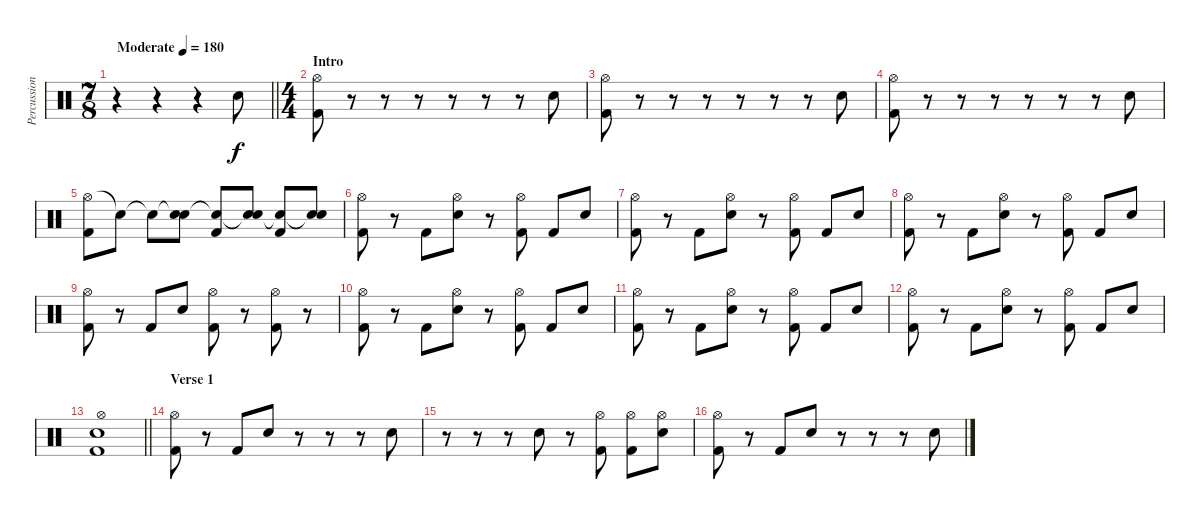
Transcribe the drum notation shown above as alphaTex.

\track ("Percussion" "Percussion") {instrument percussion}
\staff {score}
\articulation defaults
\ts (7 8)
\tempo (180 "Moderate")
\clef neutral
\barLineRight lightlight
\ks c
r.4{dy f} r.4 r.4 "Electric Snare (hit)".8 |
\ts (4 4)
\section ("" "Intro")
("Hi-Hat (open)" "Kick (hit) 2").8 r.8 r.8 r.8 r.8 r.8 r.8 "Electric Snare (hit)".8 |
("Hi-Hat (open)" "Kick (hit) 2").8 r.8 r.8 r.8 r.8 r.8 r.8 "Electric Snare (hit)".8 |
("Hi-Hat (open)" "Kick (hit) 2").8 r.8 r.8 r.8 r.8 r.8 r.8 "Electric Snare (hit)".8 |
("Hi-Hat (open)" "Kick (hit) 2").8 "Snare (hit)"{t}.8 "Snare (hit)"{t}.8 ("Snare (hit)"{t} "Electric Snare (hit)").8 ("Snare (hit)"{t} "Kick (hit) 2").8 ("Snare (hit)"{t} "Electric Snare (hit)").8 ("Snare (hit)"{t} "Kick (hit) 2").8 ("Snare (hit)"{t} "Electric Snare (hit)").8 |
("Hi-Hat (open)" "Kick (hit) 2").8 r.8 "Kick (hit) 2".8 ("Hi-Hat (open)" "Electric Snare (hit)").8 r.8 ("Hi-Hat (open)" "Kick (hit) 2").8 "Kick (hit) 2".8 "Electric Snare (hit)".8 |
("Hi-Hat (open)" "Kick (hit) 2").8 r.8 "Kick (hit) 2".8 ("Hi-Hat (open)" "Electric Snare (hit)").8 r.8 ("Hi-Hat (open)" "Kick (hit) 2").8 "Kick (hit) 2".8 "Electric Snare (hit)".8 |
("Hi-Hat (open)" "Kick (hit) 2").8 r.8 "Kick (hit) 2".8 ("Hi-Hat (open)" "Electric Snare (hit)").8 r.8 ("Hi-Hat (open)" "Kick (hit) 2").8 "Kick (hit) 2".8 "Electric Snare (hit)".8 |
("Hi-Hat (open)" "Kick (hit) 2").8 r.8 "Kick (hit) 2".8 "Electric Snare (hit)".8 ("Hi-Hat (open)" "Kick (hit) 2").8 r.8 ("Hi-Hat (open)" "Kick (hit) 2").8 r.8 |
("Hi-Hat (open)" "Kick (hit) 2").8 r.8 "Kick (hit) 2".8 ("Hi-Hat (open)" "Electric Snare (hit)").8 r.8 ("Hi-Hat (open)" "Kick (hit) 2").8 "Kick (hit) 2".8 "Electric Snare (hit)".8 |
("Hi-Hat (open)" "Kick (hit) 2").8 r.8 "Kick (hit) 2".8 ("Hi-Hat (open)" "Electric Snare (hit)").8 r.8 ("Hi-Hat (open)" "Kick (hit) 2").8 "Kick (hit) 2".8 "Electric Snare (hit)".8 |
("Hi-Hat (open)" "Kick (hit) 2").8 r.8 "Kick (hit) 2".8 ("Hi-Hat (open)" "Electric Snare (hit)").8 r.8 ("Hi-Hat (open)" "Kick (hit) 2").8 "Kick (hit) 2".8 "Electric Snare (hit)".8 |
\barLineRight lightlight
("Hi-Hat (open)" "Electric Snare (hit)" "Kick (hit) 2").1 |
\section ("" "Verse 1")
("Hi-Hat (open)" "Kick (hit) 2").8 r.8 "Kick (hit) 2".8 "Electric Snare (hit)".8 r.8 r.8 r.8 "Electric Snare (hit)".8 |
r.8 r.8 r.8 "Electric Snare (hit)".8 r.8 ("Hi-Hat (open)" "Kick (hit) 2").8 ("Hi-Hat (open)" "Kick (hit) 2").8 ("Hi-Hat (open)" "Electric Snare (hit)").8 |
("Hi-Hat (open)" "Kick (hit) 2").8 r.8 "Kick (hit) 2".8 "Electric Snare (hit)".8 r.8 r.8 r.8 "Electric Snare (hit)".8
